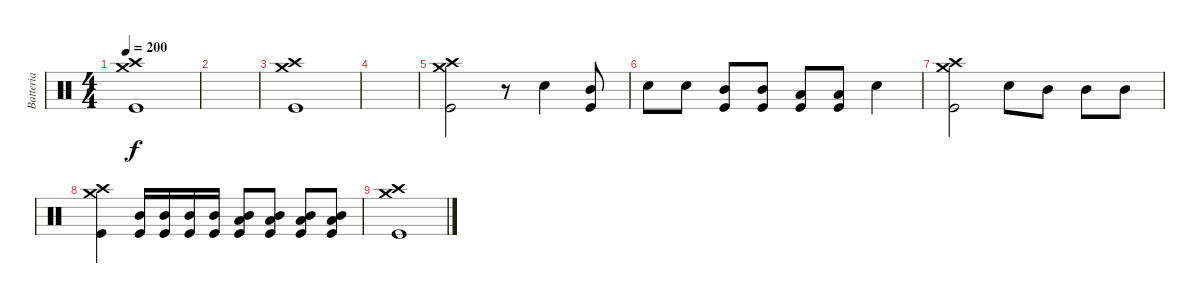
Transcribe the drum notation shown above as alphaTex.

\track ("Batteria" "Batteria") {instrument percussion}
\staff {score}
\articulation defaults
\ts (4 4)
\tempo 200
\clef neutral
\ks c
("Crash medium (hit)" "Crash high (hit)" "Kick (hit)").1{dy f} |
|
("Crash medium (hit)" "Crash high (hit)" "Kick (hit)").1 |
|
("Crash medium (hit)" "Crash high (hit)" "Kick (hit)").2 r.8 "Electric Snare (hit)".4 ("Mid Tom (hit)" "Kick (hit)").8 |
"Electric Snare (hit)".8 "Electric Snare (hit)".8 ("Mid Tom (hit)" "Kick (hit)").8 ("Mid Tom (hit)" "Kick (hit)").8 ("Low Tom (hit)" "Kick (hit)").8 ("Low Tom (hit)" "Kick (hit)").8 "Electric Snare (hit)".4 |
("Crash medium (hit)" "Crash high (hit)" "Kick (hit)").2 "Electric Snare (hit)".8 "Mid Tom (hit)".8 "Mid Tom (hit)".8 "Mid Tom (hit)".8 |
("Crash medium (hit)" "Crash high (hit)" "Kick (hit)").4 ("Mid Tom (hit)" "Kick (hit)").16 ("Mid Tom (hit)" "Kick (hit)").16 ("Mid Tom (hit)" "Kick (hit)").16 ("Mid Tom (hit)" "Kick (hit)").16 ("Low Tom (hit)" "Mid Tom (hit)" "Kick (hit)").8 ("Low Tom (hit)" "Mid Tom (hit)" "Kick (hit)").8 ("Low Tom (hit)" "Mid Tom (hit)" "Kick (hit)").8 ("Low Tom (hit)" "Mid Tom (hit)" "Kick (hit)").8 |
("Crash medium (hit)" "Crash high (hit)" "Kick (hit)").1
